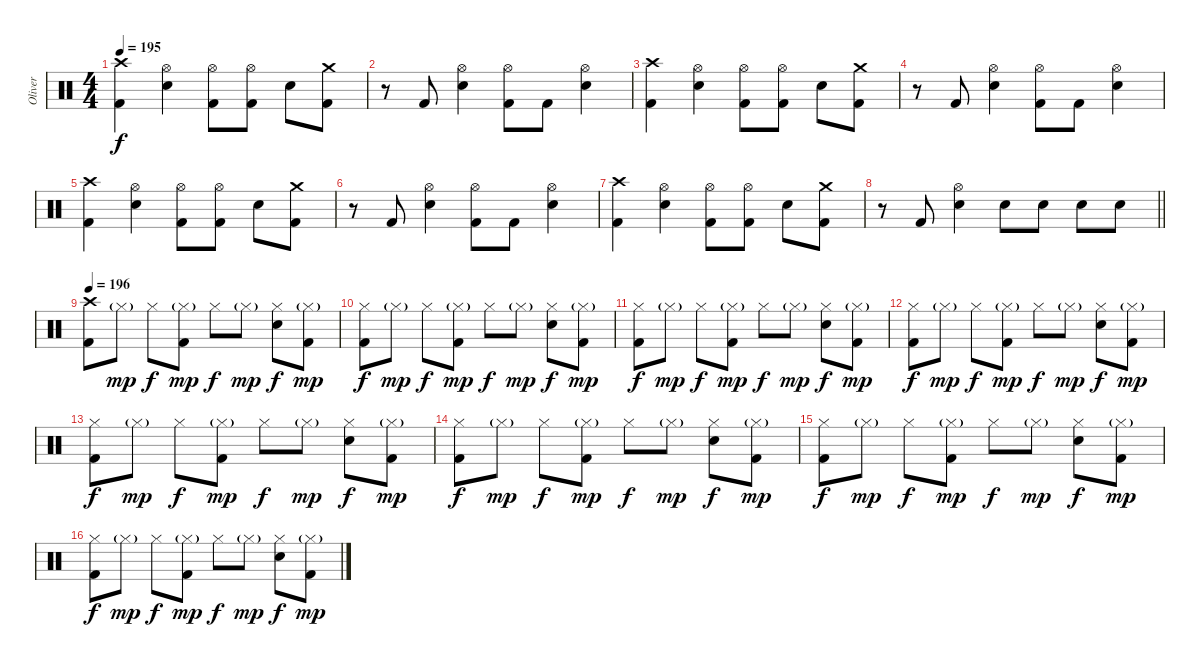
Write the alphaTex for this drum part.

\track ("Oliver" "Oliver") {instrument percussion}
\staff {score}
\articulation defaults
\ts (4 4)
\tempo 195
\clef neutral
\ks c
("Crash high (hit)" "Kick (hit) 2").4{dy f} ("Hi-Hat (open)" "Electric Snare (hit)").4 ("Hi-Hat (open)" "Kick (hit) 2").8 ("Hi-Hat (open)" "Kick (hit) 2").8 "Electric Snare (hit)".8 ("Crash medium (hit)" "Kick (hit) 2").8 |
r.8 "Kick (hit) 2".8 ("Hi-Hat (open)" "Electric Snare (hit)").4 ("Hi-Hat (open)" "Kick (hit) 2").8 "Kick (hit) 2".8 ("Hi-Hat (open)" "Electric Snare (hit)").4 |
("Crash high (hit)" "Kick (hit) 2").4 ("Hi-Hat (open)" "Electric Snare (hit)").4 ("Hi-Hat (open)" "Kick (hit) 2").8 ("Hi-Hat (open)" "Kick (hit) 2").8 "Electric Snare (hit)".8 ("Crash medium (hit)" "Kick (hit) 2").8 |
r.8 "Kick (hit) 2".8 ("Hi-Hat (open)" "Electric Snare (hit)").4 ("Hi-Hat (open)" "Kick (hit) 2").8 "Kick (hit) 2".8 ("Hi-Hat (open)" "Electric Snare (hit)").4 |
("Crash high (hit)" "Kick (hit) 2").4 ("Hi-Hat (open)" "Electric Snare (hit)").4 ("Hi-Hat (open)" "Kick (hit) 2").8 ("Hi-Hat (open)" "Kick (hit) 2").8 "Electric Snare (hit)".8 ("Crash medium (hit)" "Kick (hit) 2").8 |
r.8 "Kick (hit) 2".8 ("Hi-Hat (open)" "Electric Snare (hit)").4 ("Hi-Hat (open)" "Kick (hit) 2").8 "Kick (hit) 2".8 ("Hi-Hat (open)" "Electric Snare (hit)").4 |
("Crash high (hit)" "Kick (hit) 2").4 ("Hi-Hat (open)" "Electric Snare (hit)").4 ("Hi-Hat (open)" "Kick (hit) 2").8 ("Hi-Hat (open)" "Kick (hit) 2").8 "Electric Snare (hit)".8 ("Crash medium (hit)" "Kick (hit) 2").8 |
\barLineRight lightlight
r.8 "Kick (hit) 2".8 ("Hi-Hat (open)" "Electric Snare (hit)").4 "Electric Snare (hit)".8 "Electric Snare (hit)".8 "Electric Snare (hit)".8 "Electric Snare (hit)".8 |
\section ("" "")
\tempo 196
("Crash high (hit)" "Kick (hit) 2").8 "Hi-Hat (closed)"{g}.8{dy mp} "Hi-Hat (closed)".8{dy f} ("Hi-Hat (closed)"{g} "Kick (hit) 2").8{dy mp} "Hi-Hat (closed)".8{dy f} "Hi-Hat (closed)"{g}.8{dy mp} ("Hi-Hat (closed)" "Electric Snare (hit)").8{dy f} ("Hi-Hat (closed)"{g} "Kick (hit) 2").8{dy mp} |
("Hi-Hat (closed)" "Kick (hit) 2").8{dy f} "Hi-Hat (closed)"{g}.8{dy mp} "Hi-Hat (closed)".8{dy f} ("Hi-Hat (closed)"{g} "Kick (hit) 2").8{dy mp} "Hi-Hat (closed)".8{dy f} "Hi-Hat (closed)"{g}.8{dy mp} ("Hi-Hat (closed)" "Electric Snare (hit)").8{dy f} ("Hi-Hat (closed)"{g} "Kick (hit) 2").8{dy mp} |
("Hi-Hat (closed)" "Kick (hit) 2").8{dy f} "Hi-Hat (closed)"{g}.8{dy mp} "Hi-Hat (closed)".8{dy f} ("Hi-Hat (closed)"{g} "Kick (hit) 2").8{dy mp} "Hi-Hat (closed)".8{dy f} "Hi-Hat (closed)"{g}.8{dy mp} ("Hi-Hat (closed)" "Electric Snare (hit)").8{dy f} ("Hi-Hat (closed)"{g} "Kick (hit) 2").8{dy mp} |
("Hi-Hat (closed)" "Kick (hit) 2").8{dy f} "Hi-Hat (closed)"{g}.8{dy mp} "Hi-Hat (closed)".8{dy f} ("Hi-Hat (closed)"{g} "Kick (hit) 2").8{dy mp} "Hi-Hat (closed)".8{dy f} "Hi-Hat (closed)"{g}.8{dy mp} ("Hi-Hat (closed)" "Electric Snare (hit)").8{dy f} ("Hi-Hat (closed)"{g} "Kick (hit) 2").8{dy mp} |
("Hi-Hat (closed)" "Kick (hit) 2").8{dy f} "Hi-Hat (closed)"{g}.8{dy mp} "Hi-Hat (closed)".8{dy f} ("Hi-Hat (closed)"{g} "Kick (hit) 2").8{dy mp} "Hi-Hat (closed)".8{dy f} "Hi-Hat (closed)"{g}.8{dy mp} ("Hi-Hat (closed)" "Electric Snare (hit)").8{dy f} ("Hi-Hat (closed)"{g} "Kick (hit) 2").8{dy mp} |
("Hi-Hat (closed)" "Kick (hit) 2").8{dy f} "Hi-Hat (closed)"{g}.8{dy mp} "Hi-Hat (closed)".8{dy f} ("Hi-Hat (closed)"{g} "Kick (hit) 2").8{dy mp} "Hi-Hat (closed)".8{dy f} "Hi-Hat (closed)"{g}.8{dy mp} ("Hi-Hat (closed)" "Electric Snare (hit)").8{dy f} ("Hi-Hat (closed)"{g} "Kick (hit) 2").8{dy mp} |
("Hi-Hat (closed)" "Kick (hit) 2").8{dy f} "Hi-Hat (closed)"{g}.8{dy mp} "Hi-Hat (closed)".8{dy f} ("Hi-Hat (closed)"{g} "Kick (hit) 2").8{dy mp} "Hi-Hat (closed)".8{dy f} "Hi-Hat (closed)"{g}.8{dy mp} ("Hi-Hat (closed)" "Electric Snare (hit)").8{dy f} ("Hi-Hat (closed)"{g} "Kick (hit) 2").8{dy mp} |
("Hi-Hat (closed)" "Kick (hit) 2").8{dy f} "Hi-Hat (closed)"{g}.8{dy mp} "Hi-Hat (closed)".8{dy f} ("Hi-Hat (closed)"{g} "Kick (hit) 2").8{dy mp} "Hi-Hat (closed)".8{dy f} "Hi-Hat (closed)"{g}.8{dy mp} ("Hi-Hat (closed)" "Electric Snare (hit)").8{dy f} ("Hi-Hat (closed)"{g} "Kick (hit) 2").8{dy mp}
